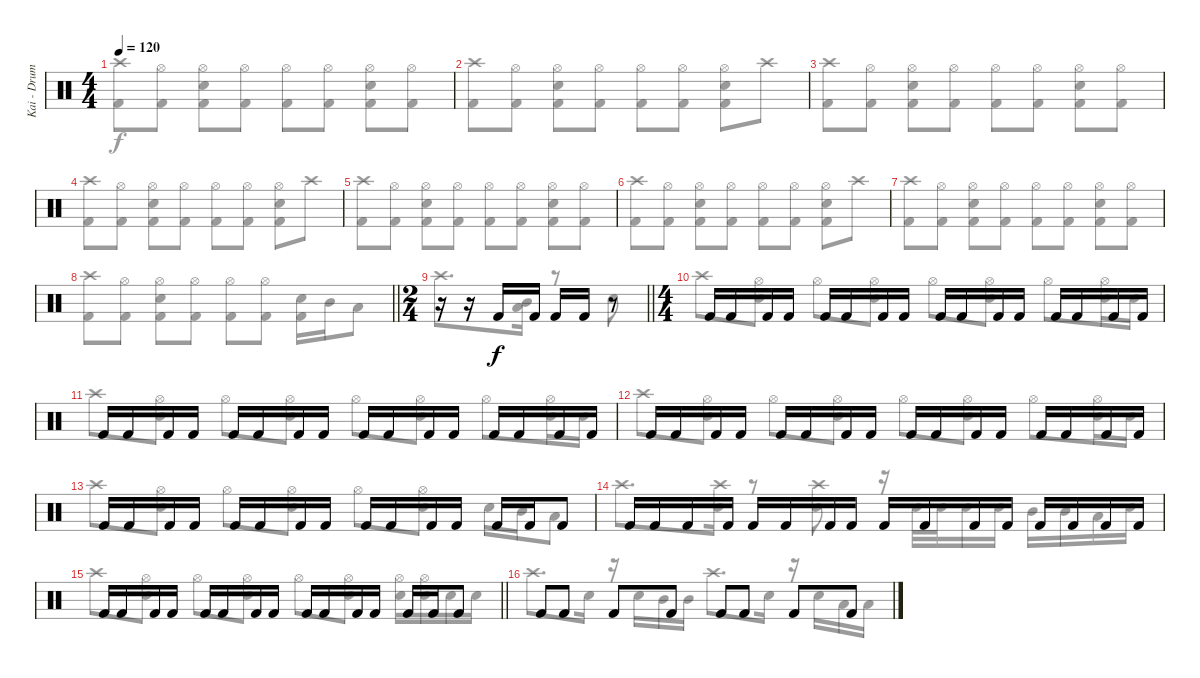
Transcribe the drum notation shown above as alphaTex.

\track ("Kai - Drums " "Kai - Drum") {instrument percussion}
\staff {score}
\articulation defaults
\voice
\ts (4 4)
\tempo 120
\clef neutral
\ks c
|
|
|
|
|
|
|
\barLineRight lightlight
|
\ts (2 4)
\barLineRight lightlight
r.16 r.16 "Kick (hit) 2".16 "Kick (hit) 2".16 "Kick (hit) 2".16 "Kick (hit) 2".16 r.8 |
\ts (4 4)
"Kick (hit) 2".16 "Kick (hit) 2".16 "Kick (hit) 2".16 "Kick (hit) 2".16 "Kick (hit) 2".16 "Kick (hit) 2".16 "Kick (hit) 2".16 "Kick (hit) 2".16 "Kick (hit) 2".16 "Kick (hit) 2".16 "Kick (hit) 2".16 "Kick (hit) 2".16 "Kick (hit) 2".16 "Kick (hit) 2".16 "Kick (hit) 2".16 "Kick (hit) 2".16 |
"Kick (hit) 2".16 "Kick (hit) 2".16 "Kick (hit) 2".16 "Kick (hit) 2".16 "Kick (hit) 2".16 "Kick (hit) 2".16 "Kick (hit) 2".16 "Kick (hit) 2".16 "Kick (hit) 2".16 "Kick (hit) 2".16 "Kick (hit) 2".16 "Kick (hit) 2".16 "Kick (hit) 2".16 "Kick (hit) 2".16 "Kick (hit) 2".16 "Kick (hit) 2".16 |
"Kick (hit) 2".16 "Kick (hit) 2".16 "Kick (hit) 2".16 "Kick (hit) 2".16 "Kick (hit) 2".16 "Kick (hit) 2".16 "Kick (hit) 2".16 "Kick (hit) 2".16 "Kick (hit) 2".16 "Kick (hit) 2".16 "Kick (hit) 2".16 "Kick (hit) 2".16 "Kick (hit) 2".16 "Kick (hit) 2".16 "Kick (hit) 2".16 "Kick (hit) 2".16 |
"Kick (hit) 2".16 "Kick (hit) 2".16 "Kick (hit) 2".16 "Kick (hit) 2".16 "Kick (hit) 2".16 "Kick (hit) 2".16 "Kick (hit) 2".16 "Kick (hit) 2".16 "Kick (hit) 2".16 "Kick (hit) 2".16 "Kick (hit) 2".16 "Kick (hit) 2".16 "Kick (hit) 2".16 "Kick (hit) 2".16 "Kick (hit) 2".8 |
"Kick (hit) 2".16 "Kick (hit) 2".16 "Kick (hit) 2".16 "Kick (hit) 2".16 "Kick (hit) 2".16 "Kick (hit) 2".16 "Kick (hit) 2".16 "Kick (hit) 2".16 "Kick (hit) 2".16 "Kick (hit) 2".16 "Kick (hit) 2".16 "Kick (hit) 2".16 "Kick (hit) 2".16 "Kick (hit) 2".16 "Kick (hit) 2".16 "Kick (hit) 2".16 |
\barLineRight lightlight "Kick (hit) 2".16 "Kick (hit) 2".16 "Kick (hit) 2".16 "Kick (hit) 2".16 "Kick (hit) 2".16 "Kick (hit) 2".16 "Kick (hit) 2".16 "Kick (hit) 2".16 "Kick (hit) 2".16 "Kick (hit) 2".16 "Kick (hit) 2".16 "Kick (hit) 2".16 "Kick (hit) 2".16 "Kick (hit) 2".16 "Kick (hit) 2".8
|
"Kick (hit) 2".8 "Kick (hit) 2".8 "Kick (hit) 2".8 "Kick (hit) 2".8 "Kick (hit) 2".8 "Kick (hit) 2".8 "Kick (hit) 2".8 "Kick (hit) 2".8
\voice
\clef neutral
\ottava regular
\simile none
\ks c
("Crash high (hit)" "Kick (hit) 2").8{dy f} ("Hi-Hat (open)" "Kick (hit) 2").8 ("Hi-Hat (open)" "Electric Snare (hit)" "Kick (hit) 2").8 ("Hi-Hat (open)" "Kick (hit) 2").8 ("Hi-Hat (open)" "Kick (hit) 2").8 ("Hi-Hat (open)" "Kick (hit) 2").8 ("Hi-Hat (open)" "Electric Snare (hit)" "Kick (hit) 2").8 ("Hi-Hat (open)" "Kick (hit) 2").8 |
("Crash high (hit)" "Kick (hit) 2").8 ("Hi-Hat (open)" "Kick (hit) 2").8 ("Hi-Hat (open)" "Electric Snare (hit)" "Kick (hit) 2").8 ("Hi-Hat (open)" "Kick (hit) 2").8 ("Hi-Hat (open)" "Kick (hit) 2").8 ("Hi-Hat (open)" "Kick (hit) 2").8 ("Hi-Hat (open)" "Electric Snare (hit)" "Kick (hit) 2").8 "Crash high (hit)".8 |
("Crash high (hit)" "Kick (hit) 2").8 ("Hi-Hat (open)" "Kick (hit) 2").8 ("Hi-Hat (open)" "Electric Snare (hit)" "Kick (hit) 2").8 ("Hi-Hat (open)" "Kick (hit) 2").8 ("Hi-Hat (open)" "Kick (hit) 2").8 ("Hi-Hat (open)" "Kick (hit) 2").8 ("Hi-Hat (open)" "Electric Snare (hit)" "Kick (hit) 2").8 ("Hi-Hat (open)" "Kick (hit) 2").8 |
("Crash high (hit)" "Kick (hit) 2").8 ("Hi-Hat (open)" "Kick (hit) 2").8 ("Hi-Hat (open)" "Electric Snare (hit)" "Kick (hit) 2").8 ("Hi-Hat (open)" "Kick (hit) 2").8 ("Hi-Hat (open)" "Kick (hit) 2").8 ("Hi-Hat (open)" "Kick (hit) 2").8 ("Hi-Hat (open)" "Electric Snare (hit)" "Kick (hit) 2").8 "Crash high (hit)".8 |
("Crash high (hit)" "Kick (hit) 2").8 ("Hi-Hat (open)" "Kick (hit) 2").8 ("Hi-Hat (open)" "Electric Snare (hit)" "Kick (hit) 2").8 ("Hi-Hat (open)" "Kick (hit) 2").8 ("Hi-Hat (open)" "Kick (hit) 2").8 ("Hi-Hat (open)" "Kick (hit) 2").8 ("Hi-Hat (open)" "Electric Snare (hit)" "Kick (hit) 2").8 ("Hi-Hat (open)" "Kick (hit) 2").8 |
("Crash high (hit)" "Kick (hit) 2").8 ("Hi-Hat (open)" "Kick (hit) 2").8 ("Hi-Hat (open)" "Electric Snare (hit)" "Kick (hit) 2").8 ("Hi-Hat (open)" "Kick (hit) 2").8 ("Hi-Hat (open)" "Kick (hit) 2").8 ("Hi-Hat (open)" "Kick (hit) 2").8 ("Hi-Hat (open)" "Electric Snare (hit)" "Kick (hit) 2").8 "Crash high (hit)".8 |
("Crash high (hit)" "Kick (hit) 2").8 ("Hi-Hat (open)" "Kick (hit) 2").8 ("Hi-Hat (open)" "Electric Snare (hit)" "Kick (hit) 2").8 ("Hi-Hat (open)" "Kick (hit) 2").8 ("Hi-Hat (open)" "Kick (hit) 2").8 ("Hi-Hat (open)" "Kick (hit) 2").8 ("Hi-Hat (open)" "Electric Snare (hit)" "Kick (hit) 2").8 ("Hi-Hat (open)" "Kick (hit) 2").8 |
\barLineRight lightlight
("Crash high (hit)" "Kick (hit) 2").8 ("Hi-Hat (open)" "Kick (hit) 2").8 ("Hi-Hat (open)" "Electric Snare (hit)" "Kick (hit) 2").8 ("Hi-Hat (open)" "Kick (hit) 2").8 ("Hi-Hat (open)" "Kick (hit) 2").8 ("Hi-Hat (open)" "Kick (hit) 2").8 ("Electric Snare (hit)" "Kick (hit) 2").16 "Mid Tom (hit)".16 "Low Tom (hit)".8 |
\barLineRight lightlight "Crash high (hit)".8{d}
("Mid Tom (hit)" "Low Tom (hit)").16 r.8 "Electric Snare (hit)".8 |
"Crash high (hit)".8 ("Hi-Hat (open)" "Electric Snare (hit)").8 "Hi-Hat (open)".8 ("Hi-Hat (open)" "Electric Snare (hit)").8 "Hi-Hat (open)".8 ("Hi-Hat (open)" "Electric Snare (hit)").8 "Hi-Hat (open)".8 ("Hi-Hat (open)" "Electric Snare (hit)").16 "Electric Snare (hit)".16 |
"Crash high (hit)".8 ("Hi-Hat (open)" "Electric Snare (hit)").8 "Hi-Hat (open)".8 ("Hi-Hat (open)" "Electric Snare (hit)").8 "Hi-Hat (open)".8 ("Hi-Hat (open)" "Electric Snare (hit)").8 "Hi-Hat (open)".8 ("Hi-Hat (open)" "Electric Snare (hit)").16 "Electric Snare (hit)".16 |
"Crash high (hit)".8 ("Hi-Hat (open)" "Electric Snare (hit)").8 "Hi-Hat (open)".8 ("Hi-Hat (open)" "Electric Snare (hit)").8 "Hi-Hat (open)".8 ("Hi-Hat (open)" "Electric Snare (hit)").8 "Hi-Hat (open)".8 ("Hi-Hat (open)" "Electric Snare (hit)").16 "Electric Snare (hit)".16 |
"Crash high (hit)".8 ("Hi-Hat (open)" "Electric Snare (hit)").8 "Hi-Hat (open)".8 ("Hi-Hat (open)" "Electric Snare (hit)").8 "Hi-Hat (open)".8 ("Hi-Hat (open)" "Electric Snare (hit)").8 "Electric Snare (hit)".16 "Mid Tom (hit)".16 "Low Tom (hit)".8 |
"Crash high (hit)".8{d} ("Crash high (hit)" "Electric Snare (hit)").16 r.8 ("Crash high (hit)" "Electric Snare (hit)").8 r.16 "Electric Snare (hit)".32 "Electric Snare (hit)".32 "Electric Snare (hit)".16 "Electric Snare (hit)".16 "Mid Tom (hit)".16 "Mid Tom (hit)".16 "Low Tom (hit)".16 "Electric Snare (hit)".16 |
\barLineRight lightlight "Crash high (hit)".8
("Hi-Hat (open)" "Electric Snare (hit)").8 "Hi-Hat (open)".8 ("Hi-Hat (open)" "Electric Snare (hit)").8 "Hi-Hat (open)".8 ("Hi-Hat (open)" "Electric Snare (hit)").8 ("Hi-Hat (open)" "Electric Snare (hit)").16 ("Hi-Hat (open)" "Electric Snare (hit)").16 "Electric Snare (hit)".16 "Electric Snare (hit)".16 |
"Crash high (hit)".8{d} "Electric Snare (hit)".16 r.16 "Electric Snare (hit)".16 "Mid Tom (hit)".16 "Mid Tom (hit)".16 "Crash high (hit)".8{d} "Electric Snare (hit)".16 r.16 "Electric Snare (hit)".16 "Low Tom (hit)".16 "Low Tom (hit)".16
